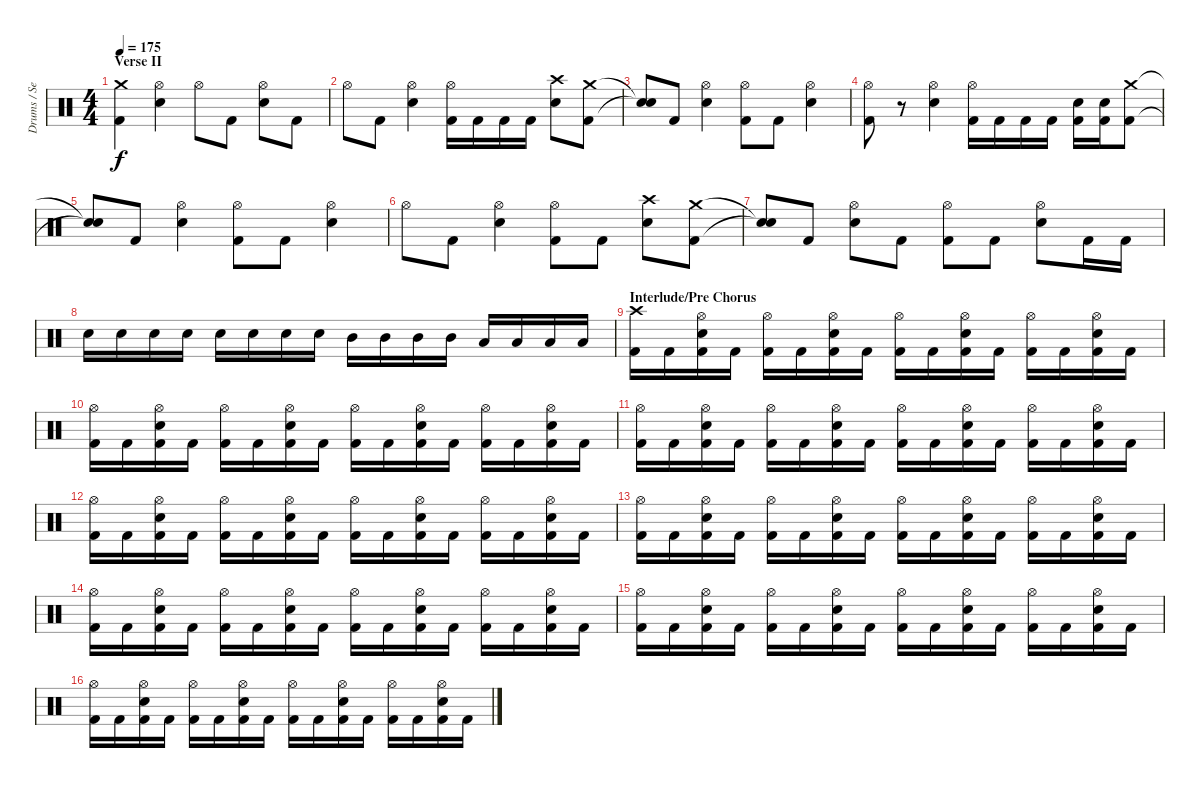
\track ("Drums / Sean" "Drums / Se") {instrument percussion}
\staff {score}
\articulation defaults
\ts (4 4)
\section ("" "Verse II")
\tempo 175
\clef neutral
\ks c
("Crash medium (hit)" "Kick (hit) 2").4{dy f} ("Hi-Hat (open)" "Electric Snare (hit)").4 "Hi-Hat (open)".8 "Kick (hit) 2".8 ("Hi-Hat (open)" "Electric Snare (hit)").8 "Kick (hit) 2".8 |
"Hi-Hat (open)".8 "Kick (hit) 2".8 ("Hi-Hat (open)" "Electric Snare (hit)").4 ("Hi-Hat (open)" "Kick (hit) 2").16 "Kick (hit) 2".16 "Kick (hit) 2".16 "Kick (hit) 2".16 ("Crash high (hit)" "Electric Snare (hit)").8 ("Crash medium (hit)" "Kick (hit) 2").8 |
("Snare (hit)"{t} "Snare (hit)"{t}).8 "Kick (hit) 2".8 ("Hi-Hat (open)" "Electric Snare (hit)").4 ("Hi-Hat (open)" "Kick (hit) 2").8 "Kick (hit) 2".8 ("Hi-Hat (open)" "Electric Snare (hit)").4 |
("Hi-Hat (open)" "Kick (hit) 2").8 r.8 ("Hi-Hat (open)" "Electric Snare (hit)").4 ("Hi-Hat (open)" "Kick (hit) 2").16 "Kick (hit) 2".16 "Kick (hit) 2".16 "Kick (hit) 2".16 ("Electric Snare (hit)" "Kick (hit) 2").16 ("Electric Snare (hit)" "Kick (hit) 2").16 ("Crash medium (hit)" "Kick (hit) 2").8 |
("Snare (hit)"{t} "Snare (hit)"{t}).8 "Kick (hit) 2".8 ("Hi-Hat (open)" "Electric Snare (hit)").4 ("Hi-Hat (open)" "Kick (hit) 2").8 "Kick (hit) 2".8 ("Hi-Hat (open)" "Electric Snare (hit)").4 |
"Hi-Hat (open)".8 "Kick (hit) 2".8 ("Hi-Hat (open)" "Electric Snare (hit)").4 ("Hi-Hat (open)" "Kick (hit) 2").8 "Kick (hit) 2".8 ("Crash high (hit)" "Electric Snare (hit)").8 ("Crash medium (hit)" "Kick (hit) 2").8 |
("Snare (hit)"{t} "Snare (hit)"{t}).8 "Kick (hit) 2".8 ("Hi-Hat (open)" "Electric Snare (hit)").8 "Kick (hit) 2".8 ("Hi-Hat (open)" "Kick (hit) 2").8 "Kick (hit) 2".8 ("Hi-Hat (open)" "Electric Snare (hit)").8 "Kick (hit) 2".16 "Kick (hit) 2".16 |
"Electric Snare (hit)".16 "Electric Snare (hit)".16 "Electric Snare (hit)".16 "Electric Snare (hit)".16 "Electric Snare (hit)".16 "Electric Snare (hit)".16 "Electric Snare (hit)".16 "Electric Snare (hit)".16 "Mid Tom (hit)".16 "Mid Tom (hit)".16 "Mid Tom (hit)".16 "Mid Tom (hit)".16 "Low Tom (hit)".16 "Low Tom (hit)".16 "Low Tom (hit)".16 "Low Tom (hit)".16 |
\section ("" "Interlude/Pre Chorus")
("Crash high (hit)" "Kick (hit) 2").16 "Kick (hit) 2".16 ("Hi-Hat (open)" "Electric Snare (hit)" "Kick (hit) 2").16 "Kick (hit) 2".16 ("Hi-Hat (open)" "Kick (hit) 2").16 "Kick (hit) 2".16 ("Hi-Hat (open)" "Electric Snare (hit)" "Kick (hit) 2").16 "Kick (hit) 2".16 ("Hi-Hat (open)" "Kick (hit) 2").16 "Kick (hit) 2".16 ("Hi-Hat (open)" "Electric Snare (hit)" "Kick (hit) 2").16 "Kick (hit) 2".16 ("Hi-Hat (open)" "Kick (hit) 2").16 "Kick (hit) 2".16 ("Hi-Hat (open)" "Electric Snare (hit)" "Kick (hit) 2").16 "Kick (hit) 2".16 |
("Hi-Hat (open)" "Kick (hit) 2").16 "Kick (hit) 2".16 ("Hi-Hat (open)" "Electric Snare (hit)" "Kick (hit) 2").16 "Kick (hit) 2".16 ("Hi-Hat (open)" "Kick (hit) 2").16 "Kick (hit) 2".16 ("Hi-Hat (open)" "Electric Snare (hit)" "Kick (hit) 2").16 "Kick (hit) 2".16 ("Hi-Hat (open)" "Kick (hit) 2").16 "Kick (hit) 2".16 ("Hi-Hat (open)" "Electric Snare (hit)" "Kick (hit) 2").16 "Kick (hit) 2".16 ("Hi-Hat (open)" "Kick (hit) 2").16 "Kick (hit) 2".16 ("Hi-Hat (open)" "Electric Snare (hit)" "Kick (hit) 2").16 "Kick (hit) 2".16 |
("Hi-Hat (open)" "Kick (hit) 2").16 "Kick (hit) 2".16 ("Hi-Hat (open)" "Electric Snare (hit)" "Kick (hit) 2").16 "Kick (hit) 2".16 ("Hi-Hat (open)" "Kick (hit) 2").16 "Kick (hit) 2".16 ("Hi-Hat (open)" "Electric Snare (hit)" "Kick (hit) 2").16 "Kick (hit) 2".16 ("Hi-Hat (open)" "Kick (hit) 2").16 "Kick (hit) 2".16 ("Hi-Hat (open)" "Electric Snare (hit)" "Kick (hit) 2").16 "Kick (hit) 2".16 ("Hi-Hat (open)" "Kick (hit) 2").16 "Kick (hit) 2".16 ("Hi-Hat (open)" "Electric Snare (hit)" "Kick (hit) 2").16 "Kick (hit) 2".16 |
("Hi-Hat (open)" "Kick (hit) 2").16 "Kick (hit) 2".16 ("Hi-Hat (open)" "Electric Snare (hit)" "Kick (hit) 2").16 "Kick (hit) 2".16 ("Hi-Hat (open)" "Kick (hit) 2").16 "Kick (hit) 2".16 ("Hi-Hat (open)" "Electric Snare (hit)" "Kick (hit) 2").16 "Kick (hit) 2".16 ("Hi-Hat (open)" "Kick (hit) 2").16 "Kick (hit) 2".16 ("Hi-Hat (open)" "Electric Snare (hit)" "Kick (hit) 2").16 "Kick (hit) 2".16 ("Hi-Hat (open)" "Kick (hit) 2").16 "Kick (hit) 2".16 ("Hi-Hat (open)" "Electric Snare (hit)" "Kick (hit) 2").16 "Kick (hit) 2".16 |
("Hi-Hat (open)" "Kick (hit) 2").16 "Kick (hit) 2".16 ("Hi-Hat (open)" "Electric Snare (hit)" "Kick (hit) 2").16 "Kick (hit) 2".16 ("Hi-Hat (open)" "Kick (hit) 2").16 "Kick (hit) 2".16 ("Hi-Hat (open)" "Electric Snare (hit)" "Kick (hit) 2").16 "Kick (hit) 2".16 ("Hi-Hat (open)" "Kick (hit) 2").16 "Kick (hit) 2".16 ("Hi-Hat (open)" "Electric Snare (hit)" "Kick (hit) 2").16 "Kick (hit) 2".16 ("Hi-Hat (open)" "Kick (hit) 2").16 "Kick (hit) 2".16 ("Hi-Hat (open)" "Electric Snare (hit)" "Kick (hit) 2").16 "Kick (hit) 2".16 |
("Hi-Hat (open)" "Kick (hit) 2").16 "Kick (hit) 2".16 ("Hi-Hat (open)" "Electric Snare (hit)" "Kick (hit) 2").16 "Kick (hit) 2".16 ("Hi-Hat (open)" "Kick (hit) 2").16 "Kick (hit) 2".16 ("Hi-Hat (open)" "Electric Snare (hit)" "Kick (hit) 2").16 "Kick (hit) 2".16 ("Hi-Hat (open)" "Kick (hit) 2").16 "Kick (hit) 2".16 ("Hi-Hat (open)" "Electric Snare (hit)" "Kick (hit) 2").16 "Kick (hit) 2".16 ("Hi-Hat (open)" "Kick (hit) 2").16 "Kick (hit) 2".16 ("Hi-Hat (open)" "Electric Snare (hit)" "Kick (hit) 2").16 "Kick (hit) 2".16 |
("Hi-Hat (open)" "Kick (hit) 2").16 "Kick (hit) 2".16 ("Hi-Hat (open)" "Electric Snare (hit)" "Kick (hit) 2").16 "Kick (hit) 2".16 ("Hi-Hat (open)" "Kick (hit) 2").16 "Kick (hit) 2".16 ("Hi-Hat (open)" "Electric Snare (hit)" "Kick (hit) 2").16 "Kick (hit) 2".16 ("Hi-Hat (open)" "Kick (hit) 2").16 "Kick (hit) 2".16 ("Hi-Hat (open)" "Electric Snare (hit)" "Kick (hit) 2").16 "Kick (hit) 2".16 ("Hi-Hat (open)" "Kick (hit) 2").16 "Kick (hit) 2".16 ("Hi-Hat (open)" "Electric Snare (hit)" "Kick (hit) 2").16 "Kick (hit) 2".16 |
("Hi-Hat (open)" "Kick (hit) 2").16 "Kick (hit) 2".16 ("Hi-Hat (open)" "Electric Snare (hit)" "Kick (hit) 2").16 "Kick (hit) 2".16 ("Hi-Hat (open)" "Kick (hit) 2").16 "Kick (hit) 2".16 ("Hi-Hat (open)" "Electric Snare (hit)" "Kick (hit) 2").16 "Kick (hit) 2".16 ("Hi-Hat (open)" "Kick (hit) 2").16 "Kick (hit) 2".16 ("Hi-Hat (open)" "Electric Snare (hit)" "Kick (hit) 2").16 "Kick (hit) 2".16 ("Hi-Hat (open)" "Kick (hit) 2").16 "Kick (hit) 2".16 ("Hi-Hat (open)" "Electric Snare (hit)" "Kick (hit) 2").16 "Kick (hit) 2".16
